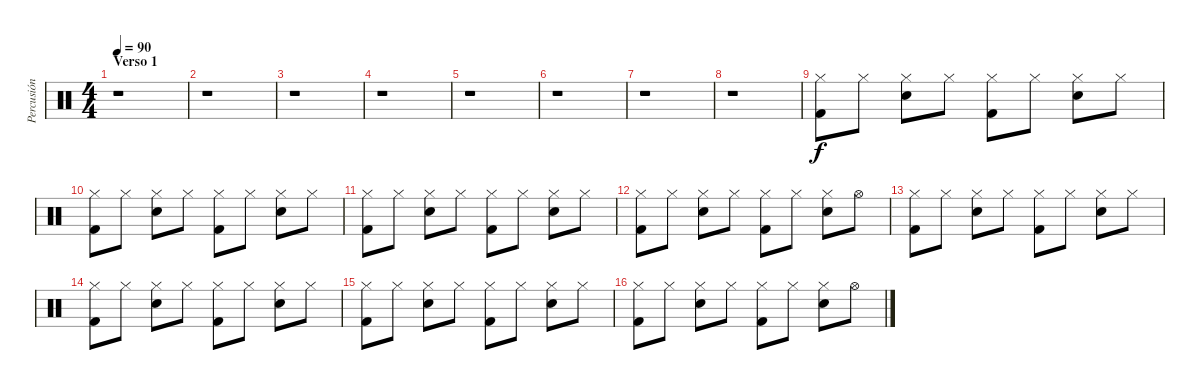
\track ("Percusión" "Percusión") {instrument percussion}
\staff {score}
\articulation defaults
\ts (4 4)
\section ("" "Verso 1")
\tempo 90
\clef neutral
\ks c
r.1{dy f} |
r.1 |
r.1 |
r.1 |
r.1 |
r.1 |
r.1 |
r.1 |
("Hi-Hat (closed)" "Kick (hit) 2").8 "Hi-Hat (closed)".8 ("Hi-Hat (closed)" "Snare (hit) 2").8 "Hi-Hat (closed)".8 ("Hi-Hat (closed)" "Kick (hit) 2").8 "Hi-Hat (closed)".8 ("Hi-Hat (closed)" "Snare (hit) 2").8 "Hi-Hat (closed)".8 |
("Hi-Hat (closed)" "Kick (hit) 2").8 "Hi-Hat (closed)".8 ("Hi-Hat (closed)" "Snare (hit) 2").8 "Hi-Hat (closed)".8 ("Hi-Hat (closed)" "Kick (hit) 2").8 "Hi-Hat (closed)".8 ("Hi-Hat (closed)" "Snare (hit) 2").8 "Hi-Hat (closed)".8 |
("Hi-Hat (closed)" "Kick (hit) 2").8 "Hi-Hat (closed)".8 ("Hi-Hat (closed)" "Snare (hit) 2").8 "Hi-Hat (closed)".8 ("Hi-Hat (closed)" "Kick (hit) 2").8 "Hi-Hat (closed)".8 ("Hi-Hat (closed)" "Snare (hit) 2").8 "Hi-Hat (closed)".8 |
("Hi-Hat (closed)" "Kick (hit) 2").8 "Hi-Hat (closed)".8 ("Hi-Hat (closed)" "Snare (hit) 2").8 "Hi-Hat (closed)".8 ("Hi-Hat (closed)" "Kick (hit) 2").8 "Hi-Hat (closed)".8 ("Hi-Hat (closed)" "Snare (hit) 2").8 "Hi-Hat (open)".8 |
("Hi-Hat (closed)" "Kick (hit) 2").8 "Hi-Hat (closed)".8 ("Hi-Hat (closed)" "Snare (hit) 2").8 "Hi-Hat (closed)".8 ("Hi-Hat (closed)" "Kick (hit) 2").8 "Hi-Hat (closed)".8 ("Hi-Hat (closed)" "Snare (hit) 2").8 "Hi-Hat (closed)".8 |
("Hi-Hat (closed)" "Kick (hit) 2").8 "Hi-Hat (closed)".8 ("Hi-Hat (closed)" "Snare (hit) 2").8 "Hi-Hat (closed)".8 ("Hi-Hat (closed)" "Kick (hit) 2").8 "Hi-Hat (closed)".8 ("Hi-Hat (closed)" "Snare (hit) 2").8 "Hi-Hat (closed)".8 |
("Hi-Hat (closed)" "Kick (hit) 2").8 "Hi-Hat (closed)".8 ("Hi-Hat (closed)" "Snare (hit) 2").8 "Hi-Hat (closed)".8 ("Hi-Hat (closed)" "Kick (hit) 2").8 "Hi-Hat (closed)".8 ("Hi-Hat (closed)" "Snare (hit) 2").8 "Hi-Hat (closed)".8 |
("Hi-Hat (closed)" "Kick (hit) 2").8 "Hi-Hat (closed)".8 ("Hi-Hat (closed)" "Snare (hit) 2").8 "Hi-Hat (closed)".8 ("Hi-Hat (closed)" "Kick (hit) 2").8 "Hi-Hat (closed)".8 ("Hi-Hat (closed)" "Snare (hit) 2").8 "Hi-Hat (open)".8
